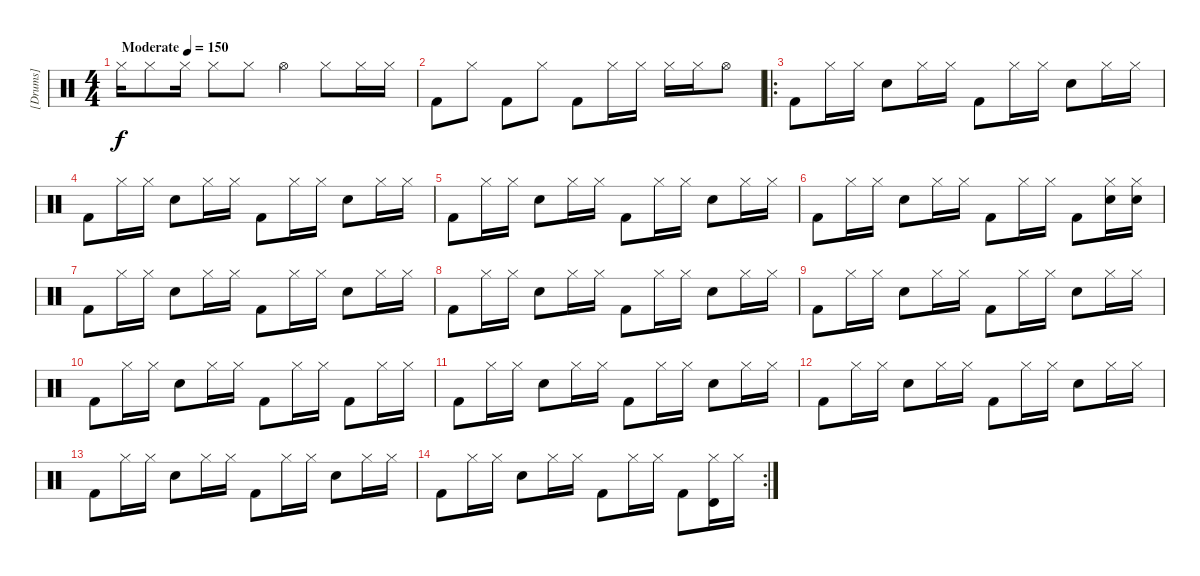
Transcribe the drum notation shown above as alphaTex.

\track ("[Drums]" "[Drums]") {instrument percussion}
\staff {score}
\articulation defaults
\ts (4 4)
\tempo (150 "Moderate")
\clef neutral
\ks c "Hi-Hat (closed)".16{dy f} "Hi-Hat (closed)".8 "Hi-Hat (closed)".16 "Hi-Hat (closed)".8 "Hi-Hat (closed)".8 "Hi-Hat (open)".4 "Hi-Hat (closed)".8 "Hi-Hat (closed)".16 "Hi-Hat (closed)".16
|
"Kick (hit) 2".8 "Hi-Hat (closed)".8 "Kick (hit) 2".8 "Hi-Hat (closed)".8 "Kick (hit) 2".8 "Hi-Hat (closed)".16 "Hi-Hat (closed)".16 "Hi-Hat (closed)".16 "Hi-Hat (closed)".16 "Hi-Hat (open)".8 |
\ro "Kick (hit) 2".8 "Hi-Hat (closed)".16 "Hi-Hat (closed)".16 "Electric Snare (hit)".8 "Hi-Hat (closed)".16 "Hi-Hat (closed)".16 "Kick (hit) 2".8 "Hi-Hat (closed)".16 "Hi-Hat (closed)".16 "Electric Snare (hit)".8 "Hi-Hat (closed)".16 "Hi-Hat (closed)".16
|
"Kick (hit) 2".8 "Hi-Hat (closed)".16 "Hi-Hat (closed)".16 "Electric Snare (hit)".8 "Hi-Hat (closed)".16 "Hi-Hat (closed)".16 "Kick (hit) 2".8 "Hi-Hat (closed)".16 "Hi-Hat (closed)".16 "Electric Snare (hit)".8 "Hi-Hat (closed)".16 "Hi-Hat (closed)".16 |
"Kick (hit) 2".8 "Hi-Hat (closed)".16 "Hi-Hat (closed)".16 "Electric Snare (hit)".8 "Hi-Hat (closed)".16 "Hi-Hat (closed)".16 "Kick (hit) 2".8 "Hi-Hat (closed)".16 "Hi-Hat (closed)".16 "Electric Snare (hit)".8 "Hi-Hat (closed)".16 "Hi-Hat (closed)".16 |
"Kick (hit) 2".8 "Hi-Hat (closed)".16 "Hi-Hat (closed)".16 "Electric Snare (hit)".8 "Hi-Hat (closed)".16 "Hi-Hat (closed)".16 "Kick (hit) 2".8 "Hi-Hat (closed)".16 "Hi-Hat (closed)".16 "Kick (hit) 2".8 ("Hi-Hat (closed)" "Electric Snare (hit)").16 ("Hi-Hat (closed)" "Electric Snare (hit)").16 |
"Kick (hit) 2".8 "Hi-Hat (closed)".16 "Hi-Hat (closed)".16 "Electric Snare (hit)".8 "Hi-Hat (closed)".16 "Hi-Hat (closed)".16 "Kick (hit) 2".8 "Hi-Hat (closed)".16 "Hi-Hat (closed)".16 "Electric Snare (hit)".8 "Hi-Hat (closed)".16 "Hi-Hat (closed)".16 |
"Kick (hit) 2".8 "Hi-Hat (closed)".16 "Hi-Hat (closed)".16 "Electric Snare (hit)".8 "Hi-Hat (closed)".16 "Hi-Hat (closed)".16 "Kick (hit) 2".8 "Hi-Hat (closed)".16 "Hi-Hat (closed)".16 "Electric Snare (hit)".8 "Hi-Hat (closed)".16 "Hi-Hat (closed)".16 |
"Kick (hit) 2".8 "Hi-Hat (closed)".16 "Hi-Hat (closed)".16 "Electric Snare (hit)".8 "Hi-Hat (closed)".16 "Hi-Hat (closed)".16 "Kick (hit) 2".8 "Hi-Hat (closed)".16 "Hi-Hat (closed)".16 "Electric Snare (hit)".8 "Hi-Hat (closed)".16 "Hi-Hat (closed)".16 |
"Kick (hit) 2".8 "Hi-Hat (closed)".16 "Hi-Hat (closed)".16 "Electric Snare (hit)".8 "Hi-Hat (closed)".16 "Hi-Hat (closed)".16 "Kick (hit) 2".8 "Hi-Hat (closed)".16 "Hi-Hat (closed)".16 "Kick (hit) 2".8 "Hi-Hat (closed)".16 "Hi-Hat (closed)".16 |
"Kick (hit) 2".8 "Hi-Hat (closed)".16 "Hi-Hat (closed)".16 "Electric Snare (hit)".8 "Hi-Hat (closed)".16 "Hi-Hat (closed)".16 "Kick (hit) 2".8 "Hi-Hat (closed)".16 "Hi-Hat (closed)".16 "Electric Snare (hit)".8 "Hi-Hat (closed)".16 "Hi-Hat (closed)".16 |
"Kick (hit) 2".8 "Hi-Hat (closed)".16 "Hi-Hat (closed)".16 "Electric Snare (hit)".8 "Hi-Hat (closed)".16 "Hi-Hat (closed)".16 "Kick (hit) 2".8 "Hi-Hat (closed)".16 "Hi-Hat (closed)".16 "Electric Snare (hit)".8 "Hi-Hat (closed)".16 "Hi-Hat (closed)".16 |
"Kick (hit) 2".8 "Hi-Hat (closed)".16 "Hi-Hat (closed)".16 "Electric Snare (hit)".8 "Hi-Hat (closed)".16 "Hi-Hat (closed)".16 "Kick (hit) 2".8 "Hi-Hat (closed)".16 "Hi-Hat (closed)".16 "Electric Snare (hit)".8 "Hi-Hat (closed)".16 "Hi-Hat (closed)".16 |
\rc 2 "Kick (hit) 2".8 "Hi-Hat (closed)".16 "Hi-Hat (closed)".16 "Electric Snare (hit)".8 "Hi-Hat (closed)".16 "Hi-Hat (closed)".16 "Kick (hit) 2".8 "Hi-Hat (closed)".16 "Hi-Hat (closed)".16 "Kick (hit) 2".8
("Hi-Hat (closed)" "Timbale high (hit)").16 "Hi-Hat (closed)".16
